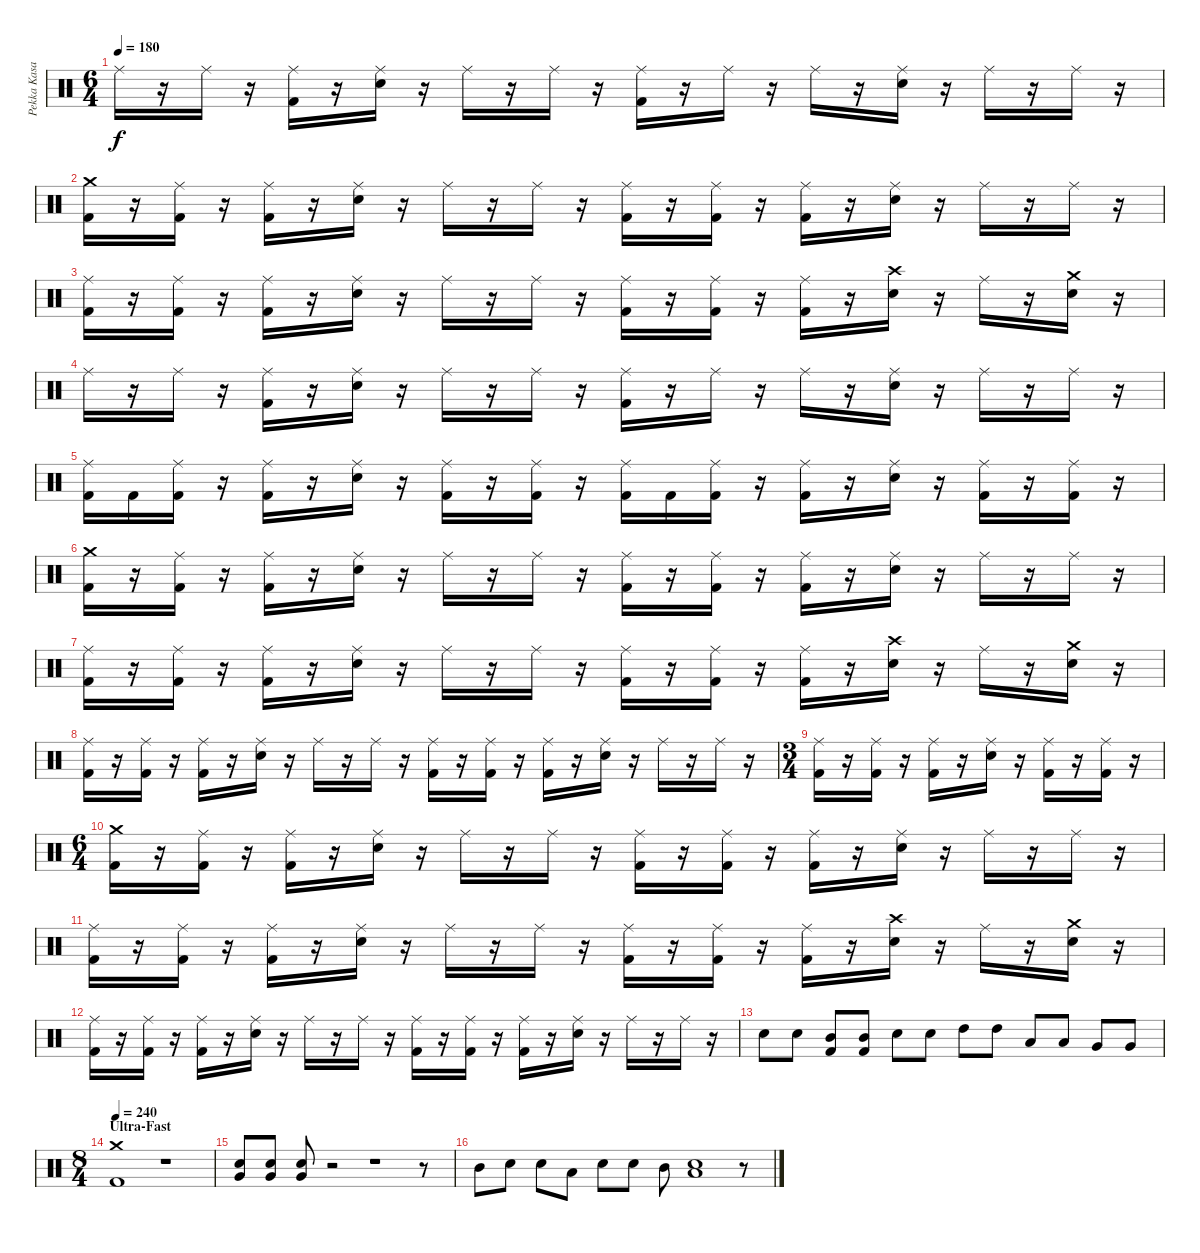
\track ("Pekka Kasari" "Pekka Kasa") {instrument percussion}
\staff {score}
\articulation defaults
\ts (6 4)
\tempo 180
\clef neutral
\ks c "Ride (middle)".16{dy f}
r.16 "Ride (middle)".16 r.16 ("Ride (middle)" "Kick (hit) 2").16 r.16 ("Ride (middle)" "Electric Snare (hit)").16 r.16 "Ride (middle)".16 r.16 "Ride (middle)".16 r.16 ("Ride (middle)" "Kick (hit) 2").16 r.16 "Ride (middle)".16 r.16 "Ride (middle)".16 r.16 ("Ride (middle)" "Electric Snare (hit)").16 r.16 "Ride (middle)".16 r.16 "Ride (middle)".16 r.16 |
("Crash medium (hit)" "Kick (hit) 2").16 r.16 ("Ride (middle)" "Kick (hit) 2").16 r.16 ("Ride (middle)" "Kick (hit) 2").16 r.16 ("Ride (middle)" "Electric Snare (hit)").16 r.16 "Ride (middle)".16 r.16 "Ride (middle)".16 r.16 ("Ride (middle)" "Kick (hit) 2").16 r.16 ("Ride (middle)" "Kick (hit) 2").16 r.16 ("Ride (middle)" "Kick (hit) 2").16 r.16 ("Ride (middle)" "Electric Snare (hit)").16 r.16 "Ride (middle)".16 r.16 "Ride (middle)".16 r.16 |
("Ride (middle)" "Kick (hit) 2").16 r.16 ("Ride (middle)" "Kick (hit) 2").16 r.16 ("Ride (middle)" "Kick (hit) 2").16 r.16 ("Ride (middle)" "Electric Snare (hit)").16 r.16 "Ride (middle)".16 r.16 "Ride (middle)".16 r.16 ("Ride (middle)" "Kick (hit) 2").16 r.16 ("Ride (middle)" "Kick (hit) 2").16 r.16 ("Ride (middle)" "Kick (hit) 2").16 r.16 ("Crash high (hit)" "Electric Snare (hit)").16 r.16 "Ride (middle)".16 r.16 ("Crash medium (hit)" "Electric Snare (hit)").16 r.16 |
"Ride (middle)".16 r.16 "Ride (middle)".16 r.16 ("Ride (middle)" "Kick (hit) 2").16 r.16 ("Ride (middle)" "Electric Snare (hit)").16 r.16 "Ride (middle)".16 r.16 "Ride (middle)".16 r.16 ("Ride (middle)" "Kick (hit) 2").16 r.16 "Ride (middle)".16 r.16 "Ride (middle)".16 r.16 ("Ride (middle)" "Electric Snare (hit)").16 r.16 "Ride (middle)".16 r.16 "Ride (middle)".16 r.16 |
("Ride (middle)" "Kick (hit) 2").16 "Kick (hit) 2".16 ("Ride (middle)" "Kick (hit) 2").16 r.16 ("Ride (middle)" "Kick (hit) 2").16 r.16 ("Ride (middle)" "Electric Snare (hit)").16 r.16 ("Ride (middle)" "Kick (hit) 2").16 r.16 ("Ride (middle)" "Kick (hit) 2").16 r.16 ("Ride (middle)" "Kick (hit) 2").16 "Kick (hit) 2".16 ("Ride (middle)" "Kick (hit) 2").16 r.16 ("Ride (middle)" "Kick (hit) 2").16 r.16 ("Ride (middle)" "Electric Snare (hit)").16 r.16 ("Ride (middle)" "Kick (hit) 2").16 r.16 ("Ride (middle)" "Kick (hit) 2").16 r.16 |
("Crash medium (hit)" "Kick (hit) 2").16 r.16 ("Ride (middle)" "Kick (hit) 2").16 r.16 ("Ride (middle)" "Kick (hit) 2").16 r.16 ("Ride (middle)" "Electric Snare (hit)").16 r.16 "Ride (middle)".16 r.16 "Ride (middle)".16 r.16 ("Ride (middle)" "Kick (hit) 2").16 r.16 ("Ride (middle)" "Kick (hit) 2").16 r.16 ("Ride (middle)" "Kick (hit) 2").16 r.16 ("Ride (middle)" "Electric Snare (hit)").16 r.16 "Ride (middle)".16 r.16 "Ride (middle)".16 r.16 |
("Ride (middle)" "Kick (hit) 2").16 r.16 ("Ride (middle)" "Kick (hit) 2").16 r.16 ("Ride (middle)" "Kick (hit) 2").16 r.16 ("Ride (middle)" "Electric Snare (hit)").16 r.16 "Ride (middle)".16 r.16 "Ride (middle)".16 r.16 ("Ride (middle)" "Kick (hit) 2").16 r.16 ("Ride (middle)" "Kick (hit) 2").16 r.16 ("Ride (middle)" "Kick (hit) 2").16 r.16 ("Crash high (hit)" "Electric Snare (hit)").16 r.16 "Ride (middle)".16 r.16 ("Crash medium (hit)" "Electric Snare (hit)").16 r.16 |
("Ride (middle)" "Kick (hit) 2").16 r.16 ("Ride (middle)" "Kick (hit) 2").16 r.16 ("Ride (middle)" "Kick (hit) 2").16 r.16 ("Ride (middle)" "Electric Snare (hit)").16 r.16 "Ride (middle)".16 r.16 "Ride (middle)".16 r.16 ("Ride (middle)" "Kick (hit) 2").16 r.16 ("Ride (middle)" "Kick (hit) 2").16 r.16 ("Ride (middle)" "Kick (hit) 2").16 r.16 ("Ride (middle)" "Electric Snare (hit)").16 r.16 "Ride (middle)".16 r.16 "Ride (middle)".16 r.16 |
\ts (3 4)
("Ride (middle)" "Kick (hit) 2").16 r.16 ("Ride (middle)" "Kick (hit) 2").16 r.16 ("Ride (middle)" "Kick (hit) 2").16 r.16 ("Ride (middle)" "Electric Snare (hit)").16 r.16 ("Ride (middle)" "Kick (hit) 2").16 r.16 ("Ride (middle)" "Kick (hit) 2").16 r.16 |
\ts (6 4)
("Crash medium (hit)" "Kick (hit) 2").16 r.16 ("Ride (middle)" "Kick (hit) 2").16 r.16 ("Ride (middle)" "Kick (hit) 2").16 r.16 ("Ride (middle)" "Electric Snare (hit)").16 r.16 "Ride (middle)".16 r.16 "Ride (middle)".16 r.16 ("Ride (middle)" "Kick (hit) 2").16 r.16 ("Ride (middle)" "Kick (hit) 2").16 r.16 ("Ride (middle)" "Kick (hit) 2").16 r.16 ("Ride (middle)" "Electric Snare (hit)").16 r.16 "Ride (middle)".16 r.16 "Ride (middle)".16 r.16 |
("Ride (middle)" "Kick (hit) 2").16 r.16 ("Ride (middle)" "Kick (hit) 2").16 r.16 ("Ride (middle)" "Kick (hit) 2").16 r.16 ("Ride (middle)" "Electric Snare (hit)").16 r.16 "Ride (middle)".16 r.16 "Ride (middle)".16 r.16 ("Ride (middle)" "Kick (hit) 2").16 r.16 ("Ride (middle)" "Kick (hit) 2").16 r.16 ("Ride (middle)" "Kick (hit) 2").16 r.16 ("Crash high (hit)" "Electric Snare (hit)").16 r.16 "Ride (middle)".16 r.16 ("Crash medium (hit)" "Electric Snare (hit)").16 r.16 |
("Ride (middle)" "Kick (hit) 2").16 r.16 ("Ride (middle)" "Kick (hit) 2").16 r.16 ("Ride (middle)" "Kick (hit) 2").16 r.16 ("Ride (middle)" "Electric Snare (hit)").16 r.16 "Ride (middle)".16 r.16 "Ride (middle)".16 r.16 ("Ride (middle)" "Kick (hit) 2").16 r.16 ("Ride (middle)" "Kick (hit) 2").16 r.16 ("Ride (middle)" "Kick (hit) 2").16 r.16 ("Ride (middle)" "Electric Snare (hit)").16 r.16 "Ride (middle)".16 r.16 "Ride (middle)".16 r.16 |
"Electric Snare (hit)".8 "Electric Snare (hit)".8 ("Mid Tom (hit)" "Kick (hit) 2").8 ("Mid Tom (hit)" "Kick (hit) 2").8 "Electric Snare (hit)".8 "Electric Snare (hit)".8 "High Tom (hit)".8 "High Tom (hit)".8 "Low Tom (hit)".8 "Low Tom (hit)".8 "Very Low Tom (hit)".8 "Very Low Tom (hit)".8 |
\ts (8 4)
\section ("" "Ultra-Fast")
\tempo 240
("Crash medium (hit)" "Kick (hit) 2").1 r.1 |
("Very Low Tom (hit)" "Electric Snare (hit)").8 ("Very Low Tom (hit)" "Electric Snare (hit)").8 ("Very Low Tom (hit)" "Electric Snare (hit)").8 r.2 r.1 r.8 |
"Mid Tom (hit)".8 "Electric Snare (hit)".8 "Electric Snare (hit)".8 "Low Tom (hit)".8 "Electric Snare (hit)".8 "Electric Snare (hit)".8 "Mid Tom (hit)".8 ("Low Tom (hit)" "Electric Snare (hit)").1 r.8
